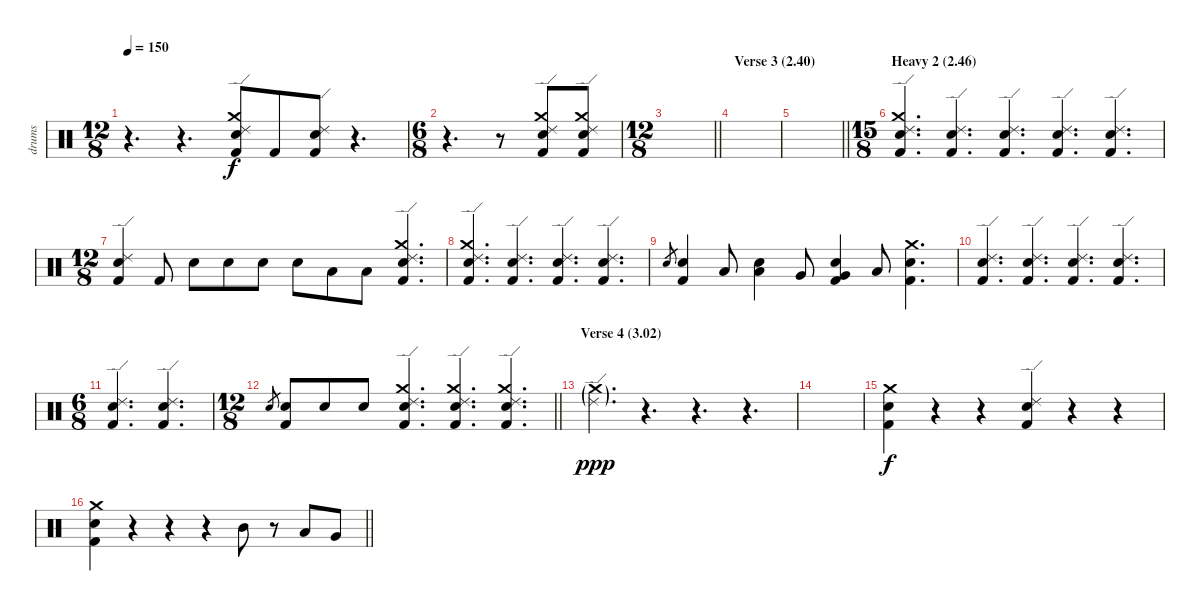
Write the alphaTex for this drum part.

\track ("drums" "drums") {instrument percussion}
\staff {score}
\articulation defaults
\ts (12 8)
\tempo 150
\clef neutral
\ks c
r.4{d dy f} r.4{d} ("Ride (edge) 2" "Crash medium (hit)" "Electric Snare (hit)" "Kick (hit) 2").8 "Kick (hit) 2".8 ("Ride (edge) 2" "Electric Snare (hit)" "Kick (hit) 2").8 r.4{d} |
\ts (6 8)
r.4{d} r.8 ("Ride (edge) 2" "Crash medium (hit)" "Electric Snare (hit)" "Kick (hit) 2").8 ("Ride (edge) 2" "Crash medium (hit)" "Electric Snare (hit)" "Kick (hit) 2").8 |
\ts (12 8)
\barLineRight lightlight
|
\section ("" "Verse 3 (2.40)")
|
\barLineRight lightlight
|
\ts (15 8)
\section ("" "Heavy 2 (2.46)")
("Ride (edge) 2" "Crash medium (hit)" "Electric Snare (hit)" "Kick (hit) 2").4{d} ("Ride (edge) 2" "Electric Snare (hit)" "Kick (hit) 2").4{d} ("Ride (edge) 2" "Electric Snare (hit)" "Kick (hit) 2").4{d} ("Ride (edge) 2" "Electric Snare (hit)" "Kick (hit) 2").4{d} ("Ride (edge) 2" "Electric Snare (hit)" "Kick (hit) 2").4{d} |
\ts (12 8)
("Ride (edge) 2" "Electric Snare (hit)" "Kick (hit) 2").4 "Kick (hit) 2".8 "Electric Snare (hit)".8 "Electric Snare (hit)".8 "Electric Snare (hit)".8 "Electric Snare (hit)".8 "Low Tom (hit)".8 "Low Tom (hit)".8 ("Ride (edge) 2" "Crash medium (hit)" "Electric Snare (hit)" "Kick (hit) 2").4{d} |
("Ride (edge) 2" "Crash medium (hit)" "Electric Snare (hit)" "Kick (hit) 2").4{d} ("Ride (edge) 2" "Electric Snare (hit)" "Kick (hit) 2").4{d} ("Ride (edge) 2" "Electric Snare (hit)" "Kick (hit) 2").4{d} ("Ride (edge) 2" "Electric Snare (hit)" "Kick (hit) 2").4{d} |
"Electric Snare (hit)".8{gr} ("Electric Snare (hit)" "Kick (hit) 2").4 "Low Tom (hit)".8 ("Low Tom (hit)" "Electric Snare (hit)").4 "Very Low Tom (hit)".8 ("Very Low Tom (hit)" "Electric Snare (hit)" "Kick (hit) 2").4 "Low Floor Tom (hit)".8 ("Crash medium (hit)" "Electric Snare (hit)" "Kick (hit) 2").4{d} |
("Ride (edge) 2" "Electric Snare (hit)" "Kick (hit) 2").4{d} ("Ride (edge) 2" "Electric Snare (hit)" "Kick (hit) 2").4{d} ("Ride (edge) 2" "Electric Snare (hit)" "Kick (hit) 2").4{d} ("Ride (edge) 2" "Electric Snare (hit)" "Kick (hit) 2").4{d} |
\ts (6 8)
("Ride (edge) 2" "Electric Snare (hit)" "Kick (hit) 2").4{d} ("Ride (edge) 2" "Electric Snare (hit)" "Kick (hit) 2").4{d} |
\ts (12 8)
\barLineRight lightlight "Electric Snare (hit)".8{gr}
("Electric Snare (hit)" "Kick (hit) 2").8 "Electric Snare (hit)".8 "Electric Snare (hit)".8 ("Ride (edge) 2" "Crash medium (hit)" "Electric Snare (hit)" "Kick (hit) 2").4{d} ("Ride (edge) 2" "Crash medium (hit)" "Electric Snare (hit)" "Kick (hit) 2").4{d} ("Ride (edge) 2" "Crash medium (hit)" "Electric Snare (hit)" "Kick (hit) 2").4{d} |
\section ("" "Verse 4 (3.02)")
("Ride (edge) 2"{g} "Crash medium (hit)"{g}).4{d dy ppp} r.4{d} r.4{d} r.4{d} |
|
("Crash medium (hit)" "Electric Snare (hit)" "Kick (hit) 2").4{dy f} r.4 r.4 ("Ride (edge) 2" "Electric Snare (hit)" "Kick (hit) 2").4 r.4 r.4 |
\barLineRight lightlight
("Crash medium (hit)" "Electric Snare (hit)" "Kick (hit) 2").4 r.4 r.4 r.4 "Mid Tom (hit)".8 r.8 "Low Tom (hit)".8 "Very Low Tom (hit)".8
